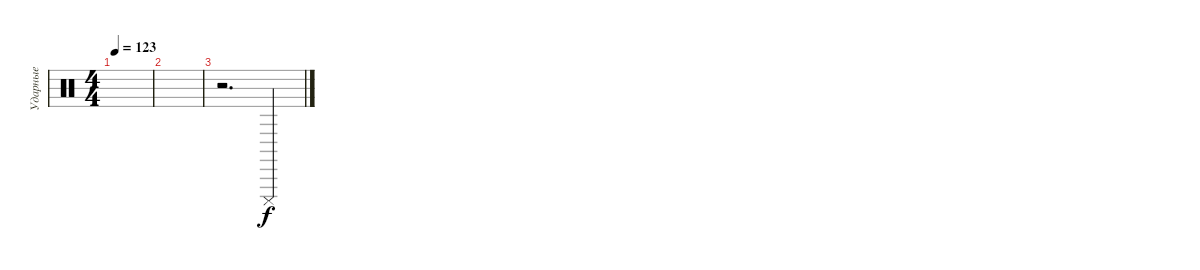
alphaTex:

\track ("Ударные" "Ударные") {instrument percussion}
\staff {score}
\articulation defaults
\ts (4 4)
\tempo 123
\clef neutral
\ks c
|
|
r.2{d} "Cuica (mute)".4
